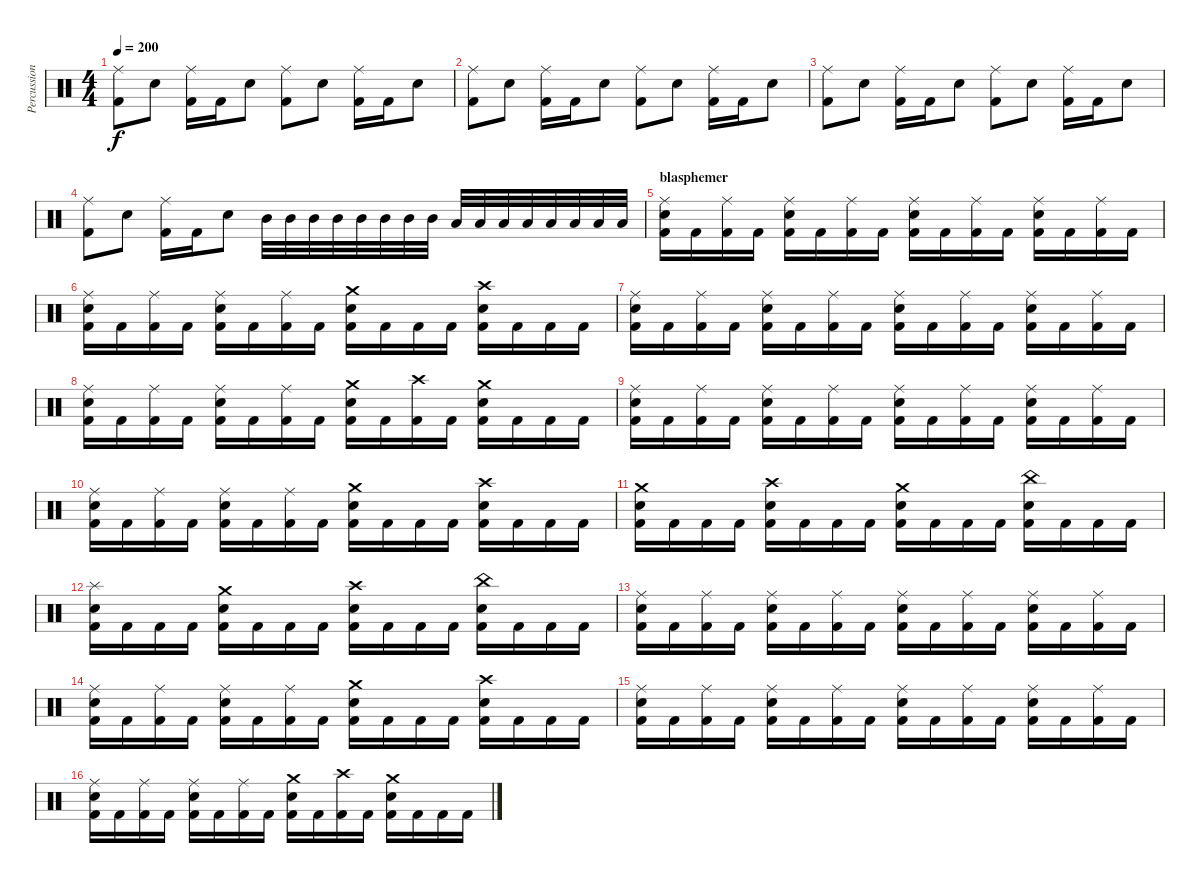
\track ("Percussions" "Percussion") {instrument percussion}
\staff {score}
\articulation defaults
\ts (4 4)
\tempo 200
\clef neutral
\ks c
("Ride (middle)" "Kick (hit) 2").8{dy f} "Electric Snare (hit)".8 ("Ride (middle)" "Kick (hit) 2").16 "Kick (hit) 2".16 "Electric Snare (hit)".8 ("Ride (middle)" "Kick (hit) 2").8 "Electric Snare (hit)".8 ("Ride (middle)" "Kick (hit) 2").16 "Kick (hit) 2".16 "Electric Snare (hit)".8 |
("Ride (middle)" "Kick (hit) 2").8 "Electric Snare (hit)".8 ("Ride (middle)" "Kick (hit) 2").16 "Kick (hit) 2".16 "Electric Snare (hit)".8 ("Ride (middle)" "Kick (hit) 2").8 "Electric Snare (hit)".8 ("Ride (middle)" "Kick (hit) 2").16 "Kick (hit) 2".16 "Electric Snare (hit)".8 |
("Ride (middle)" "Kick (hit) 2").8 "Electric Snare (hit)".8 ("Ride (middle)" "Kick (hit) 2").16 "Kick (hit) 2".16 "Electric Snare (hit)".8 ("Ride (middle)" "Kick (hit) 2").8 "Electric Snare (hit)".8 ("Ride (middle)" "Kick (hit) 2").16 "Kick (hit) 2".16 "Electric Snare (hit)".8 |
("Ride (middle)" "Kick (hit) 2").8 "Electric Snare (hit)".8 ("Ride (middle)" "Kick (hit) 2").16 "Kick (hit) 2".16 "Electric Snare (hit)".8 "Mid Tom (hit)".32 "Mid Tom (hit)".32 "Mid Tom (hit)".32 "Mid Tom (hit)".32 "Mid Tom (hit)".32 "Mid Tom (hit)".32 "Mid Tom (hit)".32 "Mid Tom (hit)".32 "Low Tom (hit)".32 "Low Tom (hit)".32 "Low Tom (hit)".32 "Low Tom (hit)".32 "Low Tom (hit)".32 "Low Tom (hit)".32 "Low Tom (hit)".32 "Low Tom (hit)".32 |
\section ("" "blasphemer")
("Ride (middle)" "Electric Snare (hit)" "Kick (hit) 2").16 "Kick (hit) 2".16 ("Ride (middle)" "Kick (hit) 2").16 "Kick (hit) 2".16 ("Ride (middle)" "Electric Snare (hit)" "Kick (hit) 2").16 "Kick (hit) 2".16 ("Ride (middle)" "Kick (hit) 2").16 "Kick (hit) 2".16 ("Ride (middle)" "Electric Snare (hit)" "Kick (hit) 2").16 "Kick (hit) 2".16 ("Ride (middle)" "Kick (hit) 2").16 "Kick (hit) 2".16 ("Ride (middle)" "Electric Snare (hit)" "Kick (hit) 2").16 "Kick (hit) 2".16 ("Ride (middle)" "Kick (hit) 2").16 "Kick (hit) 2".16 |
("Ride (middle)" "Electric Snare (hit)" "Kick (hit) 2").16 "Kick (hit) 2".16 ("Ride (middle)" "Kick (hit) 2").16 "Kick (hit) 2".16 ("Ride (middle)" "Electric Snare (hit)" "Kick (hit) 2").16 "Kick (hit) 2".16 ("Ride (middle)" "Kick (hit) 2").16 "Kick (hit) 2".16 ("Crash medium (hit)" "Electric Snare (hit)" "Kick (hit) 2").16 "Kick (hit) 2".16 "Kick (hit) 2".16 "Kick (hit) 2".16 ("Crash high (hit)" "Electric Snare (hit)" "Kick (hit) 2").16 "Kick (hit) 2".16 "Kick (hit) 2".16 "Kick (hit) 2".16 |
("Ride (middle)" "Electric Snare (hit)" "Kick (hit) 2").16 "Kick (hit) 2".16 ("Ride (middle)" "Kick (hit) 2").16 "Kick (hit) 2".16 ("Ride (middle)" "Electric Snare (hit)" "Kick (hit) 2").16 "Kick (hit) 2".16 ("Ride (middle)" "Kick (hit) 2").16 "Kick (hit) 2".16 ("Ride (middle)" "Electric Snare (hit)" "Kick (hit) 2").16 "Kick (hit) 2".16 ("Ride (middle)" "Kick (hit) 2").16 "Kick (hit) 2".16 ("Ride (middle)" "Electric Snare (hit)" "Kick (hit) 2").16 "Kick (hit) 2".16 ("Ride (middle)" "Kick (hit) 2").16 "Kick (hit) 2".16 |
("Ride (middle)" "Electric Snare (hit)" "Kick (hit) 2").16 "Kick (hit) 2".16 ("Ride (middle)" "Kick (hit) 2").16 "Kick (hit) 2".16 ("Ride (middle)" "Electric Snare (hit)" "Kick (hit) 2").16 "Kick (hit) 2".16 ("Ride (middle)" "Kick (hit) 2").16 "Kick (hit) 2".16 ("Crash medium (hit)" "Electric Snare (hit)" "Kick (hit) 2").16 "Kick (hit) 2".16 ("Crash high (hit)" "Kick (hit) 2").16 "Kick (hit) 2".16 ("Crash medium (hit)" "Electric Snare (hit)" "Kick (hit) 2").16 "Kick (hit) 2".16 "Kick (hit) 2".16 "Kick (hit) 2".16 |
("Ride (middle)" "Electric Snare (hit)" "Kick (hit) 2").16 "Kick (hit) 2".16 ("Ride (middle)" "Kick (hit) 2").16 "Kick (hit) 2".16 ("Ride (middle)" "Electric Snare (hit)" "Kick (hit) 2").16 "Kick (hit) 2".16 ("Ride (middle)" "Kick (hit) 2").16 "Kick (hit) 2".16 ("Ride (middle)" "Electric Snare (hit)" "Kick (hit) 2").16 "Kick (hit) 2".16 ("Ride (middle)" "Kick (hit) 2").16 "Kick (hit) 2".16 ("Ride (middle)" "Electric Snare (hit)" "Kick (hit) 2").16 "Kick (hit) 2".16 ("Ride (middle)" "Kick (hit) 2").16 "Kick (hit) 2".16 |
("Ride (middle)" "Electric Snare (hit)" "Kick (hit) 2").16 "Kick (hit) 2".16 ("Ride (middle)" "Kick (hit) 2").16 "Kick (hit) 2".16 ("Ride (middle)" "Electric Snare (hit)" "Kick (hit) 2").16 "Kick (hit) 2".16 ("Ride (middle)" "Kick (hit) 2").16 "Kick (hit) 2".16 ("Crash medium (hit)" "Electric Snare (hit)" "Kick (hit) 2").16 "Kick (hit) 2".16 "Kick (hit) 2".16 "Kick (hit) 2".16 ("Crash high (hit)" "Electric Snare (hit)" "Kick (hit) 2").16 "Kick (hit) 2".16 "Kick (hit) 2".16 "Kick (hit) 2".16 |
("Crash medium (hit)" "Electric Snare (hit)" "Kick (hit) 2").16 "Kick (hit) 2".16 "Kick (hit) 2".16 "Kick (hit) 2".16 ("Crash high (hit)" "Electric Snare (hit)" "Kick (hit) 2").16 "Kick (hit) 2".16 "Kick (hit) 2".16 "Kick (hit) 2".16 ("Crash medium (hit)" "Electric Snare (hit)" "Kick (hit) 2").16 "Kick (hit) 2".16 "Kick (hit) 2".16 "Kick (hit) 2".16 ("China (hit)" "Electric Snare (hit)" "Kick (hit) 2").16 "Kick (hit) 2".16 "Kick (hit) 2".16 "Kick (hit) 2".16 |
("Splash (hit)" "Electric Snare (hit)" "Kick (hit) 2").16 "Kick (hit) 2".16 "Kick (hit) 2".16 "Kick (hit) 2".16 ("Crash medium (hit)" "Electric Snare (hit)" "Kick (hit) 2").16 "Kick (hit) 2".16 "Kick (hit) 2".16 "Kick (hit) 2".16 ("Crash high (hit)" "Electric Snare (hit)" "Kick (hit) 2").16 "Kick (hit) 2".16 "Kick (hit) 2".16 "Kick (hit) 2".16 ("China (hit)" "Electric Snare (hit)" "Kick (hit) 2").16 "Kick (hit) 2".16 "Kick (hit) 2".16 "Kick (hit) 2".16 |
("Ride (middle)" "Electric Snare (hit)" "Kick (hit) 2").16 "Kick (hit) 2".16 ("Ride (middle)" "Kick (hit) 2").16 "Kick (hit) 2".16 ("Ride (middle)" "Electric Snare (hit)" "Kick (hit) 2").16 "Kick (hit) 2".16 ("Ride (middle)" "Kick (hit) 2").16 "Kick (hit) 2".16 ("Ride (middle)" "Electric Snare (hit)" "Kick (hit) 2").16 "Kick (hit) 2".16 ("Ride (middle)" "Kick (hit) 2").16 "Kick (hit) 2".16 ("Ride (middle)" "Electric Snare (hit)" "Kick (hit) 2").16 "Kick (hit) 2".16 ("Ride (middle)" "Kick (hit) 2").16 "Kick (hit) 2".16 |
("Ride (middle)" "Electric Snare (hit)" "Kick (hit) 2").16 "Kick (hit) 2".16 ("Ride (middle)" "Kick (hit) 2").16 "Kick (hit) 2".16 ("Ride (middle)" "Electric Snare (hit)" "Kick (hit) 2").16 "Kick (hit) 2".16 ("Ride (middle)" "Kick (hit) 2").16 "Kick (hit) 2".16 ("Crash medium (hit)" "Electric Snare (hit)" "Kick (hit) 2").16 "Kick (hit) 2".16 "Kick (hit) 2".16 "Kick (hit) 2".16 ("Crash high (hit)" "Electric Snare (hit)" "Kick (hit) 2").16 "Kick (hit) 2".16 "Kick (hit) 2".16 "Kick (hit) 2".16 |
("Ride (middle)" "Electric Snare (hit)" "Kick (hit) 2").16 "Kick (hit) 2".16 ("Ride (middle)" "Kick (hit) 2").16 "Kick (hit) 2".16 ("Ride (middle)" "Electric Snare (hit)" "Kick (hit) 2").16 "Kick (hit) 2".16 ("Ride (middle)" "Kick (hit) 2").16 "Kick (hit) 2".16 ("Ride (middle)" "Electric Snare (hit)" "Kick (hit) 2").16 "Kick (hit) 2".16 ("Ride (middle)" "Kick (hit) 2").16 "Kick (hit) 2".16 ("Ride (middle)" "Electric Snare (hit)" "Kick (hit) 2").16 "Kick (hit) 2".16 ("Ride (middle)" "Kick (hit) 2").16 "Kick (hit) 2".16 |
("Ride (middle)" "Electric Snare (hit)" "Kick (hit) 2").16 "Kick (hit) 2".16 ("Ride (middle)" "Kick (hit) 2").16 "Kick (hit) 2".16 ("Ride (middle)" "Electric Snare (hit)" "Kick (hit) 2").16 "Kick (hit) 2".16 ("Ride (middle)" "Kick (hit) 2").16 "Kick (hit) 2".16 ("Crash medium (hit)" "Electric Snare (hit)" "Kick (hit) 2").16 "Kick (hit) 2".16 ("Crash high (hit)" "Kick (hit) 2").16 "Kick (hit) 2".16 ("Crash medium (hit)" "Electric Snare (hit)" "Kick (hit) 2").16 "Kick (hit) 2".16 "Kick (hit) 2".16 "Kick (hit) 2".16
